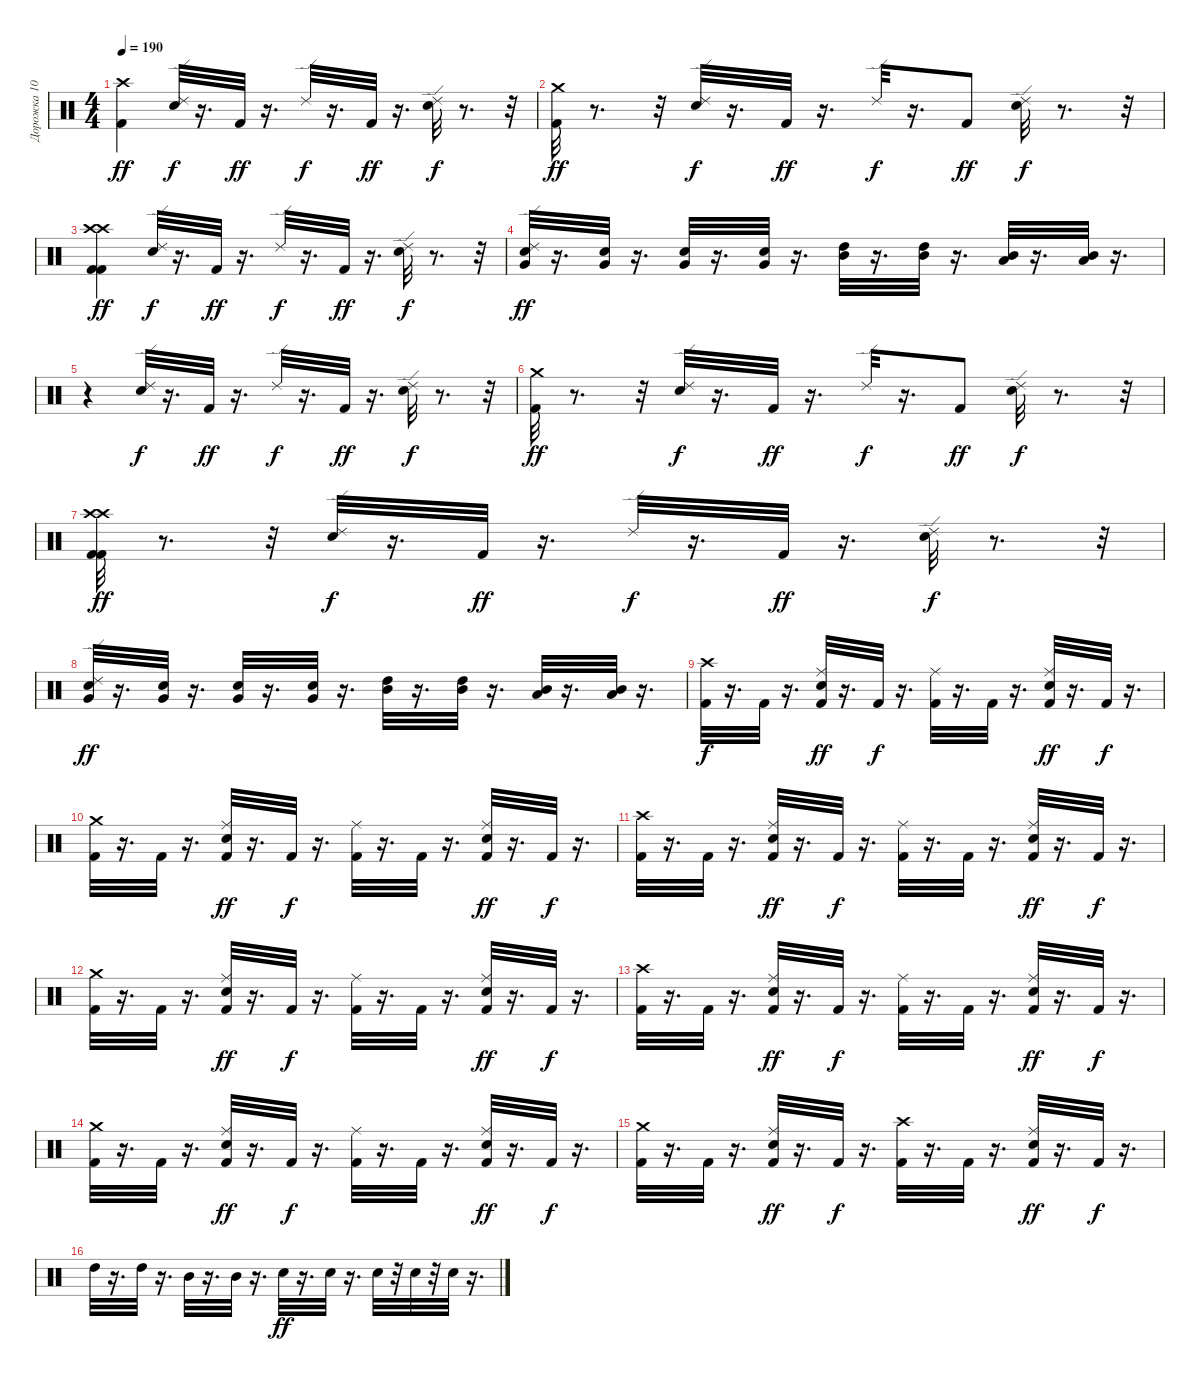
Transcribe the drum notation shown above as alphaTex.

\track ("Дорожка 10" "Дорожка 10") {instrument percussion}
\staff {score}
\articulation defaults
\ts (4 4)
\tempo 190
\clef neutral
\ks c
("Crash high (hit)" "Kick (hit) 2").4{dy ff} ("Electric Snare (hit)" "Ride (edge) 2").32{dy f} r.16{d} "Kick (hit) 2".32{dy ff} r.16{d} "Ride (edge) 2".32{dy f} r.16{d} "Kick (hit) 2".32{dy ff} r.16{d} ("Electric Snare (hit)" "Ride (edge) 2").32{dy f} r.8{d} r.32 |
("Kick (hit) 2" "Crash medium (hit)").32{dy ff} r.8{d} r.32 ("Ride (edge) 2" "Electric Snare (hit)").32{dy f} r.16{d} "Kick (hit) 2".32{dy ff} r.16{d} "Ride (edge) 2".32{dy f} r.16{d} "Kick (hit) 2".8{dy ff} ("Electric Snare (hit)" "Ride (edge) 2").32{dy f} r.8{d} r.32 |
("Kick (hit) 2" "Crash high (hit)" "Kick (hit) 2" "Crash high (hit)").4{dy ff} ("Ride (edge) 2" "Electric Snare (hit)").32{dy f} r.16{d} "Kick (hit) 2".32{dy ff} r.16{d} "Ride (edge) 2".32{dy f} r.16{d} "Kick (hit) 2".32{dy ff} r.16{d} ("Electric Snare (hit)" "Ride (edge) 2").32{dy f} r.8{d} r.32 |
("Ride (edge) 2" "Very Low Tom (hit)" "Electric Snare (hit)").32{dy ff} r.16{d} ("Electric Snare (hit)" "Very Low Tom (hit)").32 r.16{d} ("Electric Snare (hit)" "Very Low Tom (hit)").32 r.16{d} ("Very Low Tom (hit)" "Electric Snare (hit)").32 r.16{d} ("High Tom (hit)" "Mid Tom (hit)").32 r.16{d} ("High Tom (hit)" "Mid Tom (hit)").32 r.16{d} ("Mid Tom (hit)" "Low Tom (hit)").32 r.16{d} ("Low Tom (hit)" "Mid Tom (hit)").32 r.16{d} |
r.4 ("Electric Snare (hit)" "Ride (edge) 2").32{dy f} r.16{d} "Kick (hit) 2".32{dy ff} r.16{d} "Ride (edge) 2".32{dy f} r.16{d} "Kick (hit) 2".32{dy ff} r.16{d} ("Electric Snare (hit)" "Ride (edge) 2").32{dy f} r.8{d} r.32 |
("Kick (hit) 2" "Crash medium (hit)").32{dy ff} r.8{d} r.32 ("Ride (edge) 2" "Electric Snare (hit)").32{dy f} r.16{d} "Kick (hit) 2".32{dy ff} r.16{d} "Ride (edge) 2".32{dy f} r.16{d} "Kick (hit) 2".8{dy ff} ("Electric Snare (hit)" "Ride (edge) 2").32{dy f} r.8{d} r.32 |
("Kick (hit) 2" "Crash high (hit)" "Kick (hit) 2" "Crash high (hit)").32{dy ff} r.8{d} r.32 ("Ride (edge) 2" "Electric Snare (hit)").32{dy f} r.16{d} "Kick (hit) 2".32{dy ff} r.16{d} "Ride (edge) 2".32{dy f} r.16{d} "Kick (hit) 2".32{dy ff} r.16{d} ("Electric Snare (hit)" "Ride (edge) 2").32{dy f} r.8{d} r.32 |
("Ride (edge) 2" "Very Low Tom (hit)" "Electric Snare (hit)").32{dy ff} r.16{d} ("Electric Snare (hit)" "Very Low Tom (hit)").32 r.16{d} ("Electric Snare (hit)" "Very Low Tom (hit)").32 r.16{d} ("Very Low Tom (hit)" "Electric Snare (hit)").32 r.16{d} ("High Tom (hit)" "Mid Tom (hit)").32 r.16{d} ("High Tom (hit)" "Mid Tom (hit)").32 r.16{d} ("Mid Tom (hit)" "Low Tom (hit)").32 r.16{d} ("Low Tom (hit)" "Mid Tom (hit)").32 r.16{d} |
("Crash high (hit)" "Kick (hit) 2").32{dy f} r.16{d} "Kick (hit) 2".32 r.16{d} ("Ride (middle)" "Kick (hit) 2" "Snare (hit) 2").32{dy ff} r.16{d} "Kick (hit) 2".32{dy f} r.16{d} ("Ride (middle)" "Kick (hit) 2").32 r.16{d} "Kick (hit) 2".32 r.16{d} ("Ride (middle)" "Kick (hit) 2" "Snare (hit) 2").32{dy ff} r.16{d} "Kick (hit) 2".32{dy f} r.16{d} |
("Crash medium (hit)" "Kick (hit) 2").32 r.16{d} "Kick (hit) 2".32 r.16{d} ("Ride (middle)" "Snare (hit) 2" "Kick (hit) 2").32{dy ff} r.16{d} "Kick (hit) 2".32{dy f} r.16{d} ("Ride (middle)" "Kick (hit) 2").32 r.16{d} "Kick (hit) 2".32 r.16{d} ("Ride (middle)" "Snare (hit) 2" "Kick (hit) 2").32{dy ff} r.16{d} "Kick (hit) 2".32{dy f} r.16{d} |
("Crash high (hit)" "Kick (hit) 2").32 r.16{d} "Kick (hit) 2".32 r.16{d} ("Ride (middle)" "Kick (hit) 2" "Snare (hit) 2").32{dy ff} r.16{d} "Kick (hit) 2".32{dy f} r.16{d} ("Ride (middle)" "Kick (hit) 2").32 r.16{d} "Kick (hit) 2".32 r.16{d} ("Ride (middle)" "Kick (hit) 2" "Snare (hit) 2").32{dy ff} r.16{d} "Kick (hit) 2".32{dy f} r.16{d} |
("Crash medium (hit)" "Kick (hit) 2").32 r.16{d} "Kick (hit) 2".32 r.16{d} ("Ride (middle)" "Snare (hit) 2" "Kick (hit) 2").32{dy ff} r.16{d} "Kick (hit) 2".32{dy f} r.16{d} ("Ride (middle)" "Kick (hit) 2").32 r.16{d} "Kick (hit) 2".32 r.16{d} ("Ride (middle)" "Snare (hit) 2" "Kick (hit) 2").32{dy ff} r.16{d} "Kick (hit) 2".32{dy f} r.16{d} |
("Crash high (hit)" "Kick (hit) 2").32 r.16{d} "Kick (hit) 2".32 r.16{d} ("Ride (middle)" "Kick (hit) 2" "Snare (hit) 2").32{dy ff} r.16{d} "Kick (hit) 2".32{dy f} r.16{d} ("Ride (middle)" "Kick (hit) 2").32 r.16{d} "Kick (hit) 2".32 r.16{d} ("Ride (middle)" "Kick (hit) 2" "Snare (hit) 2").32{dy ff} r.16{d} "Kick (hit) 2".32{dy f} r.16{d} |
("Crash medium (hit)" "Kick (hit) 2").32 r.16{d} "Kick (hit) 2".32 r.16{d} ("Ride (middle)" "Snare (hit) 2" "Kick (hit) 2").32{dy ff} r.16{d} "Kick (hit) 2".32{dy f} r.16{d} ("Ride (middle)" "Kick (hit) 2").32 r.16{d} "Kick (hit) 2".32 r.16{d} ("Ride (middle)" "Snare (hit) 2" "Kick (hit) 2").32{dy ff} r.16{d} "Kick (hit) 2".32{dy f} r.16{d} |
("Crash medium (hit)" "Kick (hit) 2").32 r.16{d} "Kick (hit) 2".32 r.16{d} ("Ride (middle)" "Snare (hit) 2" "Kick (hit) 2").32{dy ff} r.16{d} "Kick (hit) 2".32{dy f} r.16{d} ("Crash high (hit)" "Kick (hit) 2").32 r.16{d} "Kick (hit) 2".32 r.16{d} ("Ride (middle)" "Snare (hit) 2" "Kick (hit) 2").32{dy ff} r.16{d} "Kick (hit) 2".32{dy f} r.16{d} |
"High Tom (hit)".32 r.16{d} "High Tom (hit)".32 r.16{d} "Mid Tom (hit)".32 r.16{d} "Mid Tom (hit)".32 r.16{d} "Snare (hit) 2".32{dy ff} r.16{d} "Snare (hit) 2".32 r.16{d} "Snare (hit) 2".32 r.32 "Snare (hit) 2".32 r.32 "Snare (hit) 2".32 r.16{d}
